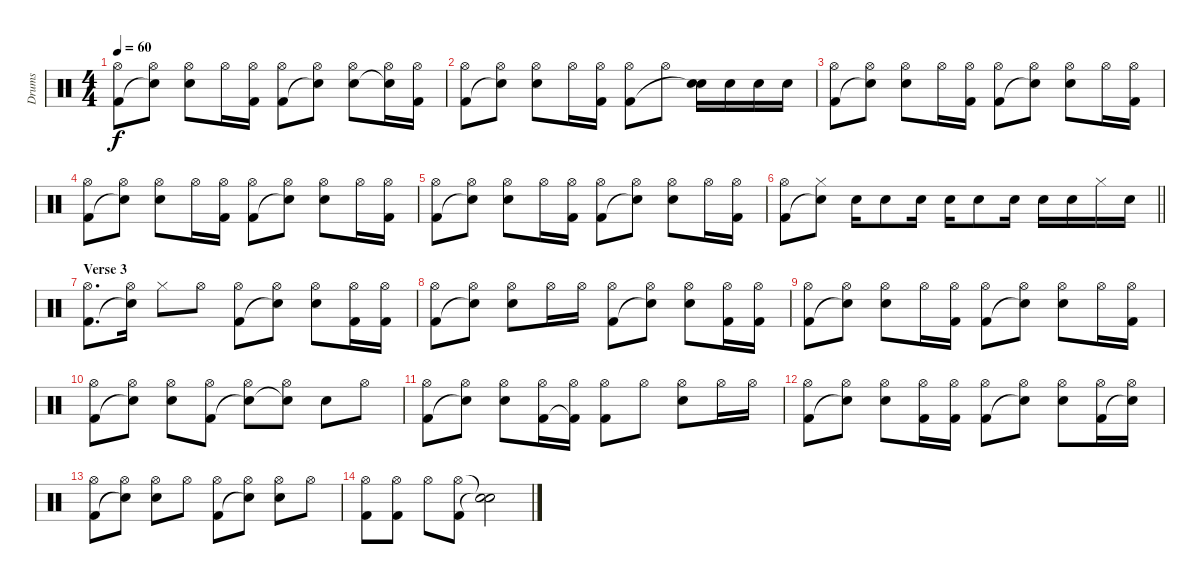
\track ("Drums" "Drums") {instrument percussion}
\staff {score}
\articulation defaults
\ts (4 4)
\tempo 60
\clef neutral
\ks c
("Hi-Hat (open)" "Kick (hit) 2").8{dy f} ("Hi-Hat (open)" "Snare (hit)"{t}).8 ("Hi-Hat (open)" "Snare (hit) 2").8 "Hi-Hat (open)".16 ("Hi-Hat (open)" "Kick (hit) 2").16 ("Hi-Hat (open)" "Kick (hit) 2").8 ("Hi-Hat (open)" "Snare (hit)"{t}).8 ("Hi-Hat (open)" "Snare (hit) 2").8 ("Hi-Hat (open)" "Snare (hit)"{t}).16 ("Hi-Hat (open)" "Kick (hit) 2").16 |
("Hi-Hat (open)" "Kick (hit) 2").8 ("Hi-Hat (open)" "Snare (hit)"{t}).8 ("Hi-Hat (open)" "Snare (hit) 2").8 "Hi-Hat (open)".16 ("Hi-Hat (open)" "Kick (hit) 2").16 ("Hi-Hat (open)" "Kick (hit) 2").8 "Hi-Hat (open)".8 ("Snare (hit) 2" "Snare (hit)"{t}).16 "Snare (hit) 2".16 "Snare (hit) 2".16 "Snare (hit) 2".16 |
("Hi-Hat (open)" "Kick (hit) 2").8 ("Hi-Hat (open)" "Snare (hit)"{t}).8 ("Hi-Hat (open)" "Snare (hit) 2").8 "Hi-Hat (open)".16 ("Hi-Hat (open)" "Kick (hit) 2").16 ("Hi-Hat (open)" "Kick (hit) 2").8 ("Hi-Hat (open)" "Snare (hit)"{t}).8 ("Hi-Hat (open)" "Snare (hit) 2").8 "Hi-Hat (open)".16 ("Hi-Hat (open)" "Kick (hit) 2").16 |
("Hi-Hat (open)" "Kick (hit) 2").8 ("Hi-Hat (open)" "Snare (hit)"{t}).8 ("Hi-Hat (open)" "Snare (hit) 2").8 "Hi-Hat (open)".16 ("Hi-Hat (open)" "Kick (hit) 2").16 ("Hi-Hat (open)" "Kick (hit) 2").8 ("Hi-Hat (open)" "Snare (hit)"{t}).8 ("Hi-Hat (open)" "Snare (hit) 2").8 "Hi-Hat (open)".16 ("Hi-Hat (open)" "Kick (hit) 2").16 |
("Hi-Hat (open)" "Kick (hit) 2").8 ("Hi-Hat (open)" "Snare (hit)"{t}).8 ("Hi-Hat (open)" "Snare (hit) 2").8 "Hi-Hat (open)".16 ("Hi-Hat (open)" "Kick (hit) 2").16 ("Hi-Hat (open)" "Kick (hit) 2").8 ("Hi-Hat (open)" "Snare (hit)"{t}).8 ("Hi-Hat (open)" "Snare (hit) 2").8 "Hi-Hat (open)".16 ("Hi-Hat (open)" "Kick (hit) 2").16 |
\barLineRight lightlight
("Hi-Hat (open)" "Kick (hit) 2").8 ("Hi-Hat (closed)" "Snare (hit)"{t}).8 "Snare (hit) 2".16 "Snare (hit) 2".8 "Snare (hit) 2".16 "Snare (hit) 2".16 "Snare (hit) 2".8 "Snare (hit) 2".16 "Snare (hit) 2".16 "Snare (hit) 2".16 "Hi-Hat (closed)".16 "Snare (hit) 2".16 |
\section ("" "Verse 3")
("Hi-Hat (open)" "Kick (hit) 2").8{d} ("Hi-Hat (open)" "Snare (hit)"{t}).16 "Hi-Hat (closed)".8 "Hi-Hat (open)".8 ("Hi-Hat (open)" "Kick (hit) 2").8 ("Hi-Hat (open)" "Snare (hit)"{t}).8 ("Hi-Hat (open)" "Snare (hit) 2").8 ("Hi-Hat (open)" "Kick (hit) 2").16 ("Hi-Hat (open)" "Kick (hit) 2").16 |
("Hi-Hat (open)" "Kick (hit) 2").8 ("Hi-Hat (open)" "Snare (hit)"{t}).8 ("Hi-Hat (open)" "Snare (hit) 2").8 "Hi-Hat (open)".16 "Hi-Hat (open)".16 ("Hi-Hat (open)" "Kick (hit) 2").8 ("Hi-Hat (open)" "Snare (hit)"{t}).8 ("Hi-Hat (open)" "Snare (hit) 2").8 ("Hi-Hat (open)" "Kick (hit) 2").16 ("Hi-Hat (open)" "Kick (hit) 2").16 |
("Hi-Hat (open)" "Kick (hit) 2").8 ("Hi-Hat (open)" "Snare (hit)"{t}).8 ("Hi-Hat (open)" "Snare (hit) 2").8 "Hi-Hat (open)".16 ("Hi-Hat (open)" "Kick (hit) 2").16 ("Hi-Hat (open)" "Kick (hit) 2").8 ("Hi-Hat (open)" "Snare (hit)"{t}).8 ("Hi-Hat (open)" "Snare (hit) 2").8 "Hi-Hat (open)".16 ("Hi-Hat (open)" "Kick (hit) 2").16 |
("Hi-Hat (open)" "Kick (hit) 2").8 ("Hi-Hat (open)" "Snare (hit)"{t}).8 ("Hi-Hat (open)" "Snare (hit) 2").8 ("Hi-Hat (open)" "Kick (hit) 2").8 ("Hi-Hat (open)" "Snare (hit)"{t}).8 ("Hi-Hat (open)" "Snare (hit)"{t}).8 "Snare (hit) 2".8 "Hi-Hat (open)".8 |
("Hi-Hat (open)" "Kick (hit) 2").8 ("Hi-Hat (open)" "Snare (hit)"{t}).8 ("Hi-Hat (open)" "Snare (hit) 2").8 ("Hi-Hat (open)" "Kick (hit) 2").16 ("Hi-Hat (open)" "Kick (hit) 2"{t}).16 ("Hi-Hat (open)" "Kick (hit) 2").8 "Hi-Hat (open)".8 ("Hi-Hat (open)" "Snare (hit) 2").8 "Hi-Hat (open)".16 "Hi-Hat (open)".16 |
("Hi-Hat (open)" "Kick (hit) 2").8 ("Hi-Hat (open)" "Snare (hit)"{t}).8 ("Hi-Hat (open)" "Snare (hit) 2").8 ("Hi-Hat (open)" "Kick (hit) 2").16 ("Hi-Hat (open)" "Kick (hit) 2").16 ("Hi-Hat (open)" "Kick (hit) 2").8 ("Hi-Hat (open)" "Snare (hit)"{t}).8 ("Hi-Hat (open)" "Snare (hit) 2").8 ("Hi-Hat (open)" "Kick (hit) 2").16 ("Hi-Hat (open)" "Snare (hit)"{t}).16 |
("Hi-Hat (open)" "Kick (hit) 2").8 ("Hi-Hat (open)" "Snare (hit)"{t}).8 ("Hi-Hat (open)" "Snare (hit) 2").8 "Hi-Hat (open)".8 ("Hi-Hat (open)" "Kick (hit) 2").8 ("Hi-Hat (open)" "Snare (hit)"{t}).8 ("Hi-Hat (open)" "Snare (hit) 2").8 "Hi-Hat (open)".8 |
("Hi-Hat (open)" "Kick (hit) 2").8 ("Hi-Hat (open)" "Kick (hit) 2").8 "Hi-Hat (open)".8 ("Hi-Hat (open)" "Kick (hit) 2").8 ("Snare (hit)"{t} "Snare (hit)"{t}).2
